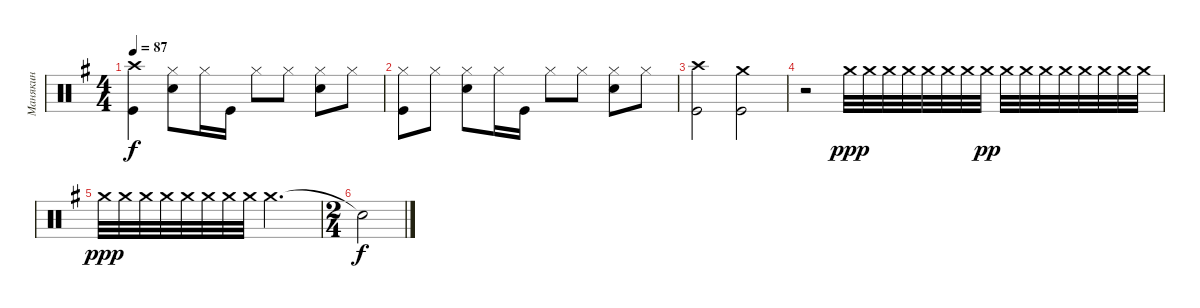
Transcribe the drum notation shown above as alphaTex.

\track ("Манякин" "Манякин") {instrument percussion}
\staff {score}
\articulation defaults
\ts (4 4)
\tempo 87
\clef neutral
\ks g
("Kick (hit)" "Crash high (hit)").4{dy f} ("Electric Snare (hit)" "Hi-Hat (closed)").8 "Hi-Hat (closed)".16 "Kick (hit)".16 "Hi-Hat (closed)".8 "Hi-Hat (closed)".8 ("Hi-Hat (closed)" "Electric Snare (hit)").8 "Hi-Hat (closed)".8 |
("Kick (hit)" "Hi-Hat (closed)").8 "Hi-Hat (closed)".8 ("Hi-Hat (closed)" "Electric Snare (hit)").8 "Hi-Hat (closed)".16 "Kick (hit)".16 "Hi-Hat (closed)".8 "Hi-Hat (closed)".8 ("Electric Snare (hit)" "Hi-Hat (closed)").8 "Hi-Hat (closed)".8 |
("Kick (hit)" "Crash high (hit)").2 ("Kick (hit)" "Crash medium (hit)").2 |
r.2 "Crash medium (hit)".32{dy ppp} "Crash medium (hit)".32 "Crash medium (hit)".32 "Crash medium (hit)".32 "Crash medium (hit)".32 "Crash medium (hit)".32 "Crash medium (hit)".32 "Crash medium (hit)".32{dy pp volume 12} "Crash medium (hit)".32 "Crash medium (hit)".32 "Crash medium (hit)".32 "Crash medium (hit)".32 "Crash medium (hit)".32 "Crash medium (hit)".32 "Crash medium (hit)".32 "Crash medium (hit)".32 |
"Crash medium (hit)".32{dy ppp volume 16} "Crash medium (hit)".32{volume 16} "Crash medium (hit)".32{volume 16} "Crash medium (hit)".32{volume 16} "Crash medium (hit)".32{volume 16} "Crash medium (hit)".32{volume 16} "Crash medium (hit)".32{volume 16} "Crash medium (hit)".32{volume 16} "Crash medium (hit)".2{d} |
\ts (2 4)
"Snare (hit)"{t}.2{dy f}
